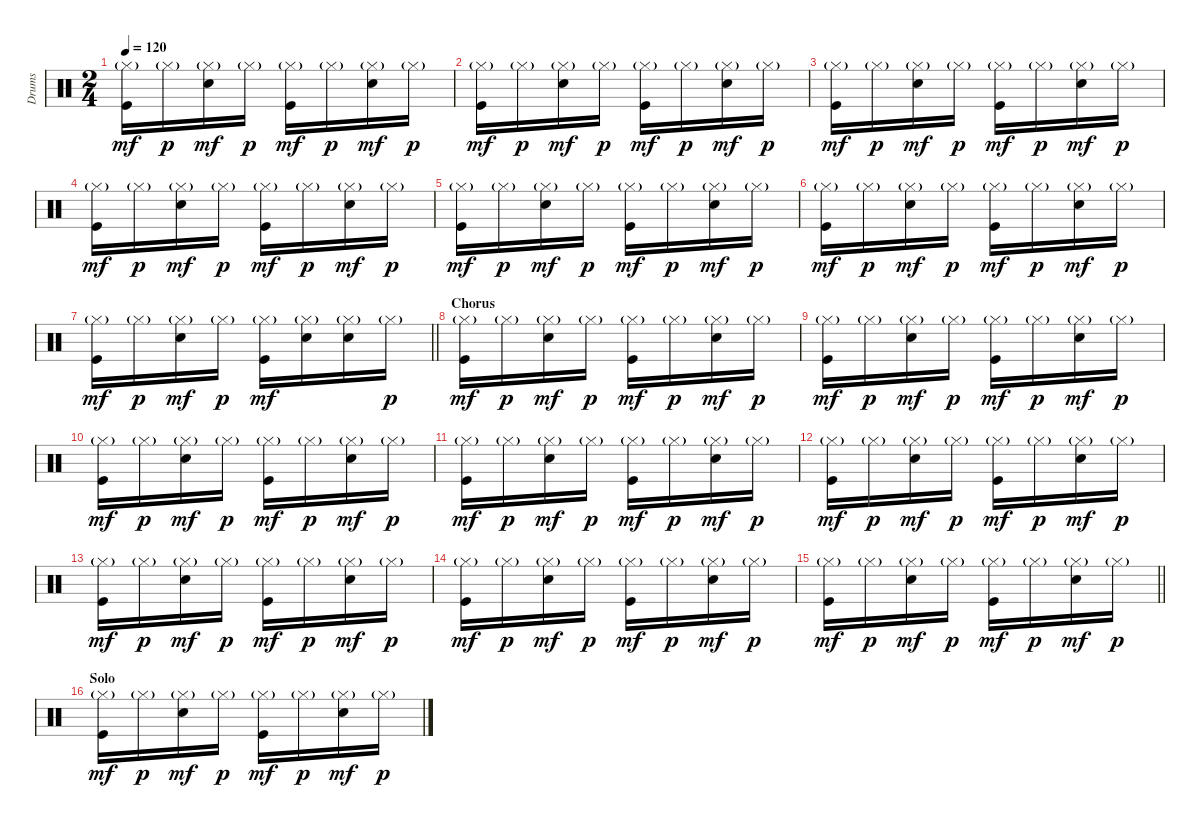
\track ("Drums" "Drums") {instrument percussion}
\staff {score}
\articulation defaults
\ts (2 4)
\tempo 120
\clef neutral
\ks c
("Hi-Hat (closed)"{g} "Kick (hit)").16{dy mf} "Hi-Hat (closed)"{g}.16{dy p} ("Hi-Hat (closed)"{g} "Snare (hit) 2").16{dy mf} "Hi-Hat (closed)"{g}.16{dy p} ("Hi-Hat (closed)"{g} "Kick (hit)").16{dy mf} "Hi-Hat (closed)"{g}.16{dy p} ("Hi-Hat (closed)"{g} "Snare (hit) 2").16{dy mf} "Hi-Hat (closed)"{g}.16{dy p} |
("Hi-Hat (closed)"{g} "Kick (hit)").16{dy mf} "Hi-Hat (closed)"{g}.16{dy p} ("Hi-Hat (closed)"{g} "Snare (hit) 2").16{dy mf} "Hi-Hat (closed)"{g}.16{dy p} ("Hi-Hat (closed)"{g} "Kick (hit)").16{dy mf} "Hi-Hat (closed)"{g}.16{dy p} ("Hi-Hat (closed)"{g} "Snare (hit) 2").16{dy mf} "Hi-Hat (closed)"{g}.16{dy p} |
("Hi-Hat (closed)"{g} "Kick (hit)").16{dy mf} "Hi-Hat (closed)"{g}.16{dy p} ("Hi-Hat (closed)"{g} "Snare (hit) 2").16{dy mf} "Hi-Hat (closed)"{g}.16{dy p} ("Hi-Hat (closed)"{g} "Kick (hit)").16{dy mf} "Hi-Hat (closed)"{g}.16{dy p} ("Hi-Hat (closed)"{g} "Snare (hit) 2").16{dy mf} "Hi-Hat (closed)"{g}.16{dy p} |
("Hi-Hat (closed)"{g} "Kick (hit)").16{dy mf} "Hi-Hat (closed)"{g}.16{dy p} ("Hi-Hat (closed)"{g} "Snare (hit) 2").16{dy mf} "Hi-Hat (closed)"{g}.16{dy p} ("Hi-Hat (closed)"{g} "Kick (hit)").16{dy mf} "Hi-Hat (closed)"{g}.16{dy p} ("Hi-Hat (closed)"{g} "Snare (hit) 2").16{dy mf} "Hi-Hat (closed)"{g}.16{dy p} |
("Hi-Hat (closed)"{g} "Kick (hit)").16{dy mf} "Hi-Hat (closed)"{g}.16{dy p} ("Hi-Hat (closed)"{g} "Snare (hit) 2").16{dy mf} "Hi-Hat (closed)"{g}.16{dy p} ("Hi-Hat (closed)"{g} "Kick (hit)").16{dy mf} "Hi-Hat (closed)"{g}.16{dy p} ("Hi-Hat (closed)"{g} "Snare (hit) 2").16{dy mf} "Hi-Hat (closed)"{g}.16{dy p} |
("Hi-Hat (closed)"{g} "Kick (hit)").16{dy mf} "Hi-Hat (closed)"{g}.16{dy p} ("Hi-Hat (closed)"{g} "Snare (hit) 2").16{dy mf} "Hi-Hat (closed)"{g}.16{dy p} ("Hi-Hat (closed)"{g} "Kick (hit)").16{dy mf} "Hi-Hat (closed)"{g}.16{dy p} ("Hi-Hat (closed)"{g} "Snare (hit) 2").16{dy mf} "Hi-Hat (closed)"{g}.16{dy p} |
\barLineRight lightlight
("Hi-Hat (closed)"{g} "Kick (hit)").16{dy mf} "Hi-Hat (closed)"{g}.16{dy p} ("Hi-Hat (closed)"{g} "Snare (hit) 2").16{dy mf} "Hi-Hat (closed)"{g}.16{dy p} ("Hi-Hat (closed)"{g} "Kick (hit)").16{dy mf} ("Hi-Hat (closed)"{g} "Snare (hit) 2").16 ("Hi-Hat (closed)"{g} "Snare (hit) 2").16 "Hi-Hat (closed)"{g}.16{dy p} |
\section ("" "Chorus")
("Hi-Hat (closed)"{g} "Kick (hit)").16{dy mf} "Hi-Hat (closed)"{g}.16{dy p} ("Hi-Hat (closed)"{g} "Snare (hit) 2").16{dy mf} "Hi-Hat (closed)"{g}.16{dy p} ("Hi-Hat (closed)"{g} "Kick (hit)").16{dy mf} "Hi-Hat (closed)"{g}.16{dy p} ("Hi-Hat (closed)"{g} "Snare (hit) 2").16{dy mf} "Hi-Hat (closed)"{g}.16{dy p} |
("Hi-Hat (closed)"{g} "Kick (hit)").16{dy mf} "Hi-Hat (closed)"{g}.16{dy p} ("Hi-Hat (closed)"{g} "Snare (hit) 2").16{dy mf} "Hi-Hat (closed)"{g}.16{dy p} ("Hi-Hat (closed)"{g} "Kick (hit)").16{dy mf} "Hi-Hat (closed)"{g}.16{dy p} ("Hi-Hat (closed)"{g} "Snare (hit) 2").16{dy mf} "Hi-Hat (closed)"{g}.16{dy p} |
("Hi-Hat (closed)"{g} "Kick (hit)").16{dy mf} "Hi-Hat (closed)"{g}.16{dy p} ("Hi-Hat (closed)"{g} "Snare (hit) 2").16{dy mf} "Hi-Hat (closed)"{g}.16{dy p} ("Hi-Hat (closed)"{g} "Kick (hit)").16{dy mf} "Hi-Hat (closed)"{g}.16{dy p} ("Hi-Hat (closed)"{g} "Snare (hit) 2").16{dy mf} "Hi-Hat (closed)"{g}.16{dy p} |
("Hi-Hat (closed)"{g} "Kick (hit)").16{dy mf} "Hi-Hat (closed)"{g}.16{dy p} ("Hi-Hat (closed)"{g} "Snare (hit) 2").16{dy mf} "Hi-Hat (closed)"{g}.16{dy p} ("Hi-Hat (closed)"{g} "Kick (hit)").16{dy mf} "Hi-Hat (closed)"{g}.16{dy p} ("Hi-Hat (closed)"{g} "Snare (hit) 2").16{dy mf} "Hi-Hat (closed)"{g}.16{dy p} |
("Hi-Hat (closed)"{g} "Kick (hit)").16{dy mf} "Hi-Hat (closed)"{g}.16{dy p} ("Hi-Hat (closed)"{g} "Snare (hit) 2").16{dy mf} "Hi-Hat (closed)"{g}.16{dy p} ("Hi-Hat (closed)"{g} "Kick (hit)").16{dy mf} "Hi-Hat (closed)"{g}.16{dy p} ("Hi-Hat (closed)"{g} "Snare (hit) 2").16{dy mf} "Hi-Hat (closed)"{g}.16{dy p} |
("Hi-Hat (closed)"{g} "Kick (hit)").16{dy mf} "Hi-Hat (closed)"{g}.16{dy p} ("Hi-Hat (closed)"{g} "Snare (hit) 2").16{dy mf} "Hi-Hat (closed)"{g}.16{dy p} ("Hi-Hat (closed)"{g} "Kick (hit)").16{dy mf} "Hi-Hat (closed)"{g}.16{dy p} ("Hi-Hat (closed)"{g} "Snare (hit) 2").16{dy mf} "Hi-Hat (closed)"{g}.16{dy p} |
("Hi-Hat (closed)"{g} "Kick (hit)").16{dy mf} "Hi-Hat (closed)"{g}.16{dy p} ("Hi-Hat (closed)"{g} "Snare (hit) 2").16{dy mf} "Hi-Hat (closed)"{g}.16{dy p} ("Hi-Hat (closed)"{g} "Kick (hit)").16{dy mf} "Hi-Hat (closed)"{g}.16{dy p} ("Hi-Hat (closed)"{g} "Snare (hit) 2").16{dy mf} "Hi-Hat (closed)"{g}.16{dy p} |
\barLineRight lightlight
("Hi-Hat (closed)"{g} "Kick (hit)").16{dy mf} "Hi-Hat (closed)"{g}.16{dy p} ("Hi-Hat (closed)"{g} "Snare (hit) 2").16{dy mf} "Hi-Hat (closed)"{g}.16{dy p} ("Hi-Hat (closed)"{g} "Kick (hit)").16{dy mf} "Hi-Hat (closed)"{g}.16{dy p} ("Hi-Hat (closed)"{g} "Snare (hit) 2").16{dy mf} "Hi-Hat (closed)"{g}.16{dy p} |
\section ("" "Solo")
("Hi-Hat (closed)"{g} "Kick (hit)").16{dy mf} "Hi-Hat (closed)"{g}.16{dy p} ("Hi-Hat (closed)"{g} "Snare (hit) 2").16{dy mf} "Hi-Hat (closed)"{g}.16{dy p} ("Hi-Hat (closed)"{g} "Kick (hit)").16{dy mf} "Hi-Hat (closed)"{g}.16{dy p} ("Hi-Hat (closed)"{g} "Snare (hit) 2").16{dy mf} "Hi-Hat (closed)"{g}.16{dy p}
